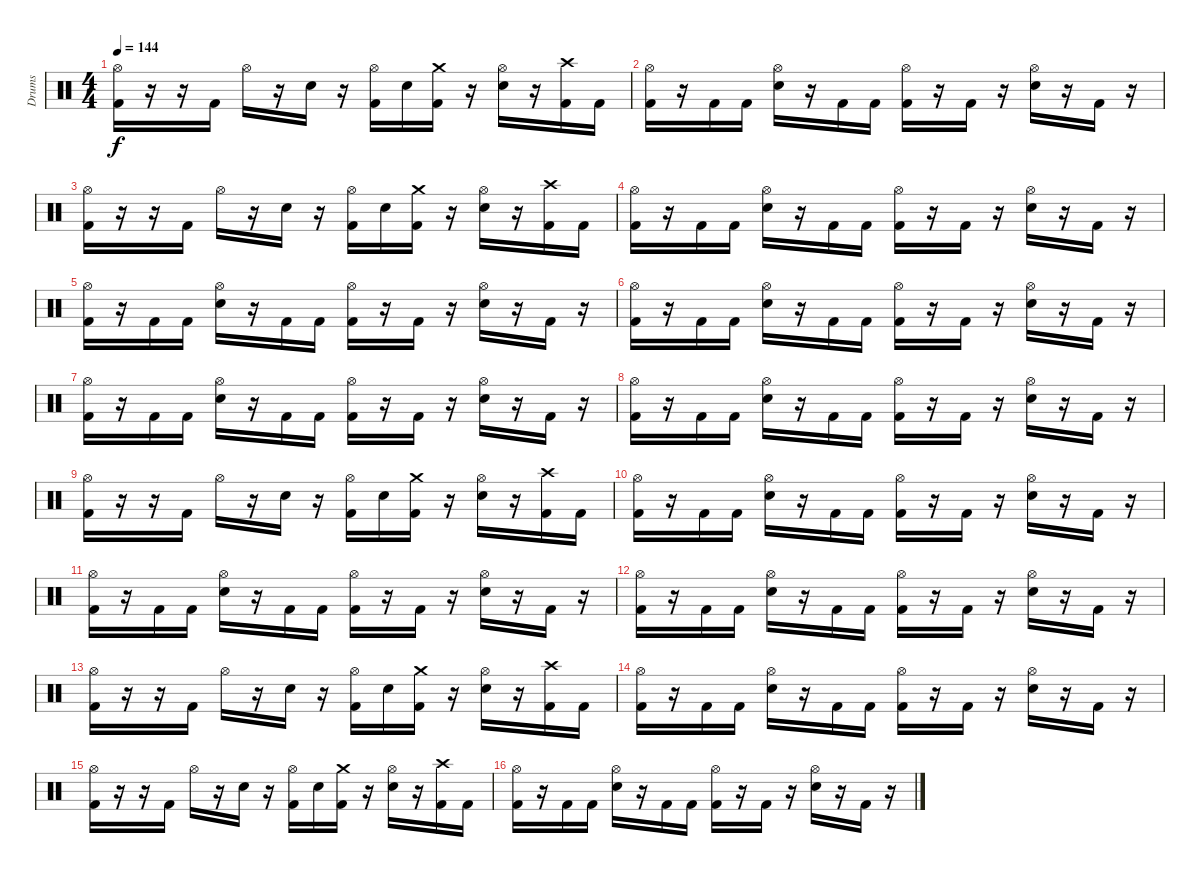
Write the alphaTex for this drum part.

\track ("Drums" "Drums") {instrument percussion}
\staff {score}
\articulation defaults
\ts (4 4)
\tempo 144
\clef neutral
\ks c
("Hi-Hat (open)" "Kick (hit) 2").16{dy f} r.16 r.16 "Kick (hit) 2".16 "Hi-Hat (open)".16 r.16 "Snare (hit) 2".16 r.16 ("Hi-Hat (open)" "Kick (hit) 2").16 "Snare (hit) 2".16 ("Crash medium (hit)" "Kick (hit) 2").16 r.16 ("Hi-Hat (open)" "Snare (hit) 2").16 r.16 ("Crash high (hit)" "Kick (hit) 2").16 "Kick (hit) 2".16 |
("Hi-Hat (open)" "Kick (hit) 2").16 r.16 "Kick (hit) 2".16 "Kick (hit) 2".16 ("Hi-Hat (open)" "Snare (hit) 2").16 r.16 "Kick (hit) 2".16 "Kick (hit) 2".16 ("Hi-Hat (open)" "Kick (hit) 2").16 r.16 "Kick (hit) 2".16 r.16 ("Hi-Hat (open)" "Snare (hit) 2").16 r.16 "Kick (hit) 2".16 r.16 |
("Hi-Hat (open)" "Kick (hit) 2").16 r.16 r.16 "Kick (hit) 2".16 "Hi-Hat (open)".16 r.16 "Snare (hit) 2".16 r.16 ("Hi-Hat (open)" "Kick (hit) 2").16 "Snare (hit) 2".16 ("Crash medium (hit)" "Kick (hit) 2").16 r.16 ("Hi-Hat (open)" "Snare (hit) 2").16 r.16 ("Crash high (hit)" "Kick (hit) 2").16 "Kick (hit) 2".16 |
("Hi-Hat (open)" "Kick (hit) 2").16 r.16 "Kick (hit) 2".16 "Kick (hit) 2".16 ("Hi-Hat (open)" "Snare (hit) 2").16 r.16 "Kick (hit) 2".16 "Kick (hit) 2".16 ("Hi-Hat (open)" "Kick (hit) 2").16 r.16 "Kick (hit) 2".16 r.16 ("Hi-Hat (open)" "Snare (hit) 2").16 r.16 "Kick (hit) 2".16 r.16 |
("Hi-Hat (open)" "Kick (hit) 2").16 r.16 "Kick (hit) 2".16 "Kick (hit) 2".16 ("Hi-Hat (open)" "Snare (hit) 2").16 r.16 "Kick (hit) 2".16 "Kick (hit) 2".16 ("Hi-Hat (open)" "Kick (hit) 2").16 r.16 "Kick (hit) 2".16 r.16 ("Hi-Hat (open)" "Snare (hit) 2").16 r.16 "Kick (hit) 2".16 r.16 |
("Hi-Hat (open)" "Kick (hit) 2").16 r.16 "Kick (hit) 2".16 "Kick (hit) 2".16 ("Hi-Hat (open)" "Snare (hit) 2").16 r.16 "Kick (hit) 2".16 "Kick (hit) 2".16 ("Hi-Hat (open)" "Kick (hit) 2").16 r.16 "Kick (hit) 2".16 r.16 ("Hi-Hat (open)" "Snare (hit) 2").16 r.16 "Kick (hit) 2".16 r.16 |
("Hi-Hat (open)" "Kick (hit) 2").16 r.16 "Kick (hit) 2".16 "Kick (hit) 2".16 ("Hi-Hat (open)" "Snare (hit) 2").16 r.16 "Kick (hit) 2".16 "Kick (hit) 2".16 ("Hi-Hat (open)" "Kick (hit) 2").16 r.16 "Kick (hit) 2".16 r.16 ("Hi-Hat (open)" "Snare (hit) 2").16 r.16 "Kick (hit) 2".16 r.16 |
("Hi-Hat (open)" "Kick (hit) 2").16 r.16 "Kick (hit) 2".16 "Kick (hit) 2".16 ("Hi-Hat (open)" "Snare (hit) 2").16 r.16 "Kick (hit) 2".16 "Kick (hit) 2".16 ("Hi-Hat (open)" "Kick (hit) 2").16 r.16 "Kick (hit) 2".16 r.16 ("Hi-Hat (open)" "Snare (hit) 2").16 r.16 "Kick (hit) 2".16 r.16 |
("Hi-Hat (open)" "Kick (hit) 2").16 r.16 r.16 "Kick (hit) 2".16 "Hi-Hat (open)".16 r.16 "Snare (hit) 2".16 r.16 ("Hi-Hat (open)" "Kick (hit) 2").16 "Snare (hit) 2".16 ("Crash medium (hit)" "Kick (hit) 2").16 r.16 ("Hi-Hat (open)" "Snare (hit) 2").16 r.16 ("Crash high (hit)" "Kick (hit) 2").16 "Kick (hit) 2".16 |
("Hi-Hat (open)" "Kick (hit) 2").16 r.16 "Kick (hit) 2".16 "Kick (hit) 2".16 ("Hi-Hat (open)" "Snare (hit) 2").16 r.16 "Kick (hit) 2".16 "Kick (hit) 2".16 ("Hi-Hat (open)" "Kick (hit) 2").16 r.16 "Kick (hit) 2".16 r.16 ("Hi-Hat (open)" "Snare (hit) 2").16 r.16 "Kick (hit) 2".16 r.16 |
("Hi-Hat (open)" "Kick (hit) 2").16 r.16 "Kick (hit) 2".16 "Kick (hit) 2".16 ("Hi-Hat (open)" "Snare (hit) 2").16 r.16 "Kick (hit) 2".16 "Kick (hit) 2".16 ("Hi-Hat (open)" "Kick (hit) 2").16 r.16 "Kick (hit) 2".16 r.16 ("Hi-Hat (open)" "Snare (hit) 2").16 r.16 "Kick (hit) 2".16 r.16 |
("Hi-Hat (open)" "Kick (hit) 2").16 r.16 "Kick (hit) 2".16 "Kick (hit) 2".16 ("Hi-Hat (open)" "Snare (hit) 2").16 r.16 "Kick (hit) 2".16 "Kick (hit) 2".16 ("Hi-Hat (open)" "Kick (hit) 2").16 r.16 "Kick (hit) 2".16 r.16 ("Hi-Hat (open)" "Snare (hit) 2").16 r.16 "Kick (hit) 2".16 r.16 |
("Hi-Hat (open)" "Kick (hit) 2").16 r.16 r.16 "Kick (hit) 2".16 "Hi-Hat (open)".16 r.16 "Snare (hit) 2".16 r.16 ("Hi-Hat (open)" "Kick (hit) 2").16 "Snare (hit) 2".16 ("Crash medium (hit)" "Kick (hit) 2").16 r.16 ("Hi-Hat (open)" "Snare (hit) 2").16 r.16 ("Crash high (hit)" "Kick (hit) 2").16 "Kick (hit) 2".16 |
("Hi-Hat (open)" "Kick (hit) 2").16 r.16 "Kick (hit) 2".16 "Kick (hit) 2".16 ("Hi-Hat (open)" "Snare (hit) 2").16 r.16 "Kick (hit) 2".16 "Kick (hit) 2".16 ("Hi-Hat (open)" "Kick (hit) 2").16 r.16 "Kick (hit) 2".16 r.16 ("Hi-Hat (open)" "Snare (hit) 2").16 r.16 "Kick (hit) 2".16 r.16 |
("Hi-Hat (open)" "Kick (hit) 2").16 r.16 r.16 "Kick (hit) 2".16 "Hi-Hat (open)".16 r.16 "Snare (hit) 2".16 r.16 ("Hi-Hat (open)" "Kick (hit) 2").16 "Snare (hit) 2".16 ("Crash medium (hit)" "Kick (hit) 2").16 r.16 ("Hi-Hat (open)" "Snare (hit) 2").16 r.16 ("Crash high (hit)" "Kick (hit) 2").16 "Kick (hit) 2".16 |
("Hi-Hat (open)" "Kick (hit) 2").16 r.16 "Kick (hit) 2".16 "Kick (hit) 2".16 ("Hi-Hat (open)" "Snare (hit) 2").16 r.16 "Kick (hit) 2".16 "Kick (hit) 2".16 ("Hi-Hat (open)" "Kick (hit) 2").16 r.16 "Kick (hit) 2".16 r.16 ("Hi-Hat (open)" "Snare (hit) 2").16 r.16 "Kick (hit) 2".16 r.16
